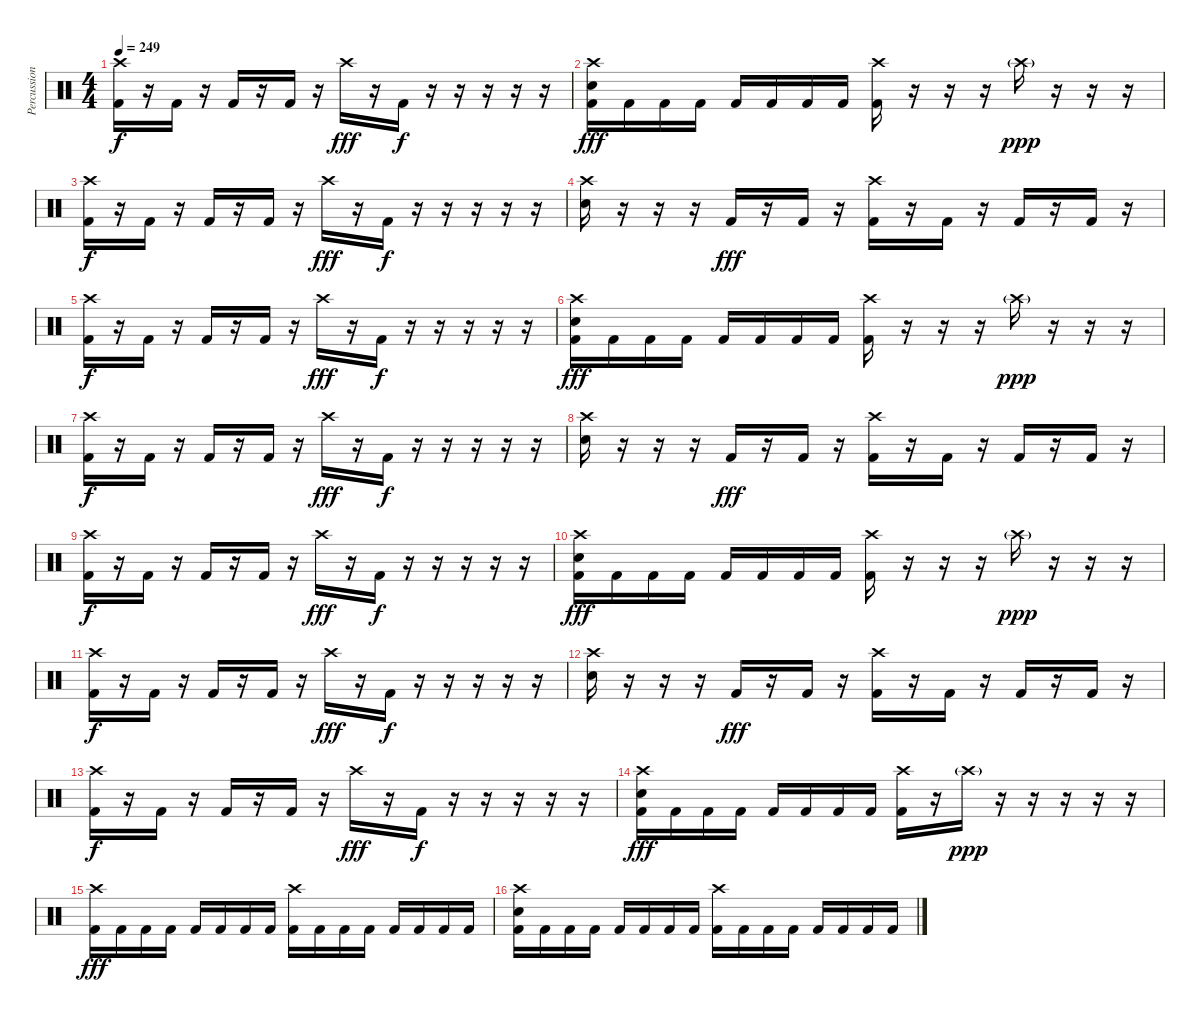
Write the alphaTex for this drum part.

\track ("Percussion" "Percussion") {instrument percussion}
\staff {score}
\articulation defaults
\ts (4 4)
\tempo 249
\clef neutral
\ks c
("Crash high (hit)" "Kick (hit) 2").16{dy f} r.16 "Kick (hit) 2".16 r.16 "Kick (hit) 2".16 r.16 "Kick (hit) 2".16 r.16 "Crash high (hit)".16{dy fff} r.16 "Kick (hit) 2".16{dy f} r.16 r.16 r.16 r.16 r.16 |
("Crash high (hit)" "Electric Snare (hit)" "Kick (hit) 2").16{dy fff} "Kick (hit) 2".16 "Kick (hit) 2".16 "Kick (hit) 2".16 "Kick (hit) 2".16 "Kick (hit) 2".16 "Kick (hit) 2".16 "Kick (hit) 2".16 ("Crash high (hit)" "Kick (hit) 2").16 r.16 r.16 r.16 "Crash high (hit)"{g}.16{dy ppp} r.16 r.16 r.16 |
("Crash high (hit)" "Kick (hit) 2").16{dy f} r.16 "Kick (hit) 2".16 r.16 "Kick (hit) 2".16 r.16 "Kick (hit) 2".16 r.16 "Crash high (hit)".16{dy fff} r.16 "Kick (hit) 2".16{dy f} r.16 r.16 r.16 r.16 r.16 |
("Crash high (hit)" "Electric Snare (hit)").16 r.16 r.16 r.16 "Kick (hit) 2".16{dy fff} r.16 "Kick (hit) 2".16 r.16 ("Crash high (hit)" "Kick (hit) 2").16 r.16 "Kick (hit) 2".16 r.16 "Kick (hit) 2".16 r.16 "Kick (hit) 2".16 r.16 |
("Crash high (hit)" "Kick (hit) 2").16{dy f} r.16 "Kick (hit) 2".16 r.16 "Kick (hit) 2".16 r.16 "Kick (hit) 2".16 r.16 "Crash high (hit)".16{dy fff} r.16 "Kick (hit) 2".16{dy f} r.16 r.16 r.16 r.16 r.16 |
("Crash high (hit)" "Electric Snare (hit)" "Kick (hit) 2").16{dy fff} "Kick (hit) 2".16 "Kick (hit) 2".16 "Kick (hit) 2".16 "Kick (hit) 2".16 "Kick (hit) 2".16 "Kick (hit) 2".16 "Kick (hit) 2".16 ("Crash high (hit)" "Kick (hit) 2").16 r.16 r.16 r.16 "Crash high (hit)"{g}.16{dy ppp} r.16 r.16 r.16 |
("Crash high (hit)" "Kick (hit) 2").16{dy f} r.16 "Kick (hit) 2".16 r.16 "Kick (hit) 2".16 r.16 "Kick (hit) 2".16 r.16 "Crash high (hit)".16{dy fff} r.16 "Kick (hit) 2".16{dy f} r.16 r.16 r.16 r.16 r.16 |
("Crash high (hit)" "Electric Snare (hit)").16 r.16 r.16 r.16 "Kick (hit) 2".16{dy fff} r.16 "Kick (hit) 2".16 r.16 ("Crash high (hit)" "Kick (hit) 2").16 r.16 "Kick (hit) 2".16 r.16 "Kick (hit) 2".16 r.16 "Kick (hit) 2".16 r.16 |
("Crash high (hit)" "Kick (hit) 2").16{dy f} r.16 "Kick (hit) 2".16 r.16 "Kick (hit) 2".16 r.16 "Kick (hit) 2".16 r.16 "Crash high (hit)".16{dy fff} r.16 "Kick (hit) 2".16{dy f} r.16 r.16 r.16 r.16 r.16 |
("Crash high (hit)" "Electric Snare (hit)" "Kick (hit) 2").16{dy fff} "Kick (hit) 2".16 "Kick (hit) 2".16 "Kick (hit) 2".16 "Kick (hit) 2".16 "Kick (hit) 2".16 "Kick (hit) 2".16 "Kick (hit) 2".16 ("Crash high (hit)" "Kick (hit) 2").16 r.16 r.16 r.16 "Crash high (hit)"{g}.16{dy ppp} r.16 r.16 r.16 |
("Crash high (hit)" "Kick (hit) 2").16{dy f} r.16 "Kick (hit) 2".16 r.16 "Kick (hit) 2".16 r.16 "Kick (hit) 2".16 r.16 "Crash high (hit)".16{dy fff} r.16 "Kick (hit) 2".16{dy f} r.16 r.16 r.16 r.16 r.16 |
("Crash high (hit)" "Electric Snare (hit)").16 r.16 r.16 r.16 "Kick (hit) 2".16{dy fff} r.16 "Kick (hit) 2".16 r.16 ("Crash high (hit)" "Kick (hit) 2").16 r.16 "Kick (hit) 2".16 r.16 "Kick (hit) 2".16 r.16 "Kick (hit) 2".16 r.16 |
("Crash high (hit)" "Kick (hit) 2").16{dy f} r.16 "Kick (hit) 2".16 r.16 "Kick (hit) 2".16 r.16 "Kick (hit) 2".16 r.16 "Crash high (hit)".16{dy fff} r.16 "Kick (hit) 2".16{dy f} r.16 r.16 r.16 r.16 r.16 |
("Crash high (hit)" "Electric Snare (hit)" "Kick (hit) 2").16{dy fff} "Kick (hit) 2".16 "Kick (hit) 2".16 "Kick (hit) 2".16 "Kick (hit) 2".16 "Kick (hit) 2".16 "Kick (hit) 2".16 "Kick (hit) 2".16 ("Crash high (hit)" "Kick (hit) 2").16 r.16 "Crash high (hit)"{g}.16{dy ppp} r.16 r.16 r.16 r.16 r.16 |
("Crash high (hit)" "Kick (hit) 2").16{dy fff} "Kick (hit) 2".16 "Kick (hit) 2".16 "Kick (hit) 2".16 "Kick (hit) 2".16 "Kick (hit) 2".16 "Kick (hit) 2".16 "Kick (hit) 2".16 ("Crash high (hit)" "Kick (hit) 2").16 "Kick (hit) 2".16 "Kick (hit) 2".16 "Kick (hit) 2".16 "Kick (hit) 2".16 "Kick (hit) 2".16 "Kick (hit) 2".16 "Kick (hit) 2".16 |
("Crash high (hit)" "Electric Snare (hit)" "Kick (hit) 2").16 "Kick (hit) 2".16 "Kick (hit) 2".16 "Kick (hit) 2".16 "Kick (hit) 2".16 "Kick (hit) 2".16 "Kick (hit) 2".16 "Kick (hit) 2".16 ("Crash high (hit)" "Kick (hit) 2").16 "Kick (hit) 2".16 "Kick (hit) 2".16 "Kick (hit) 2".16 "Kick (hit) 2".16 "Kick (hit) 2".16 "Kick (hit) 2".16 "Kick (hit) 2".16
